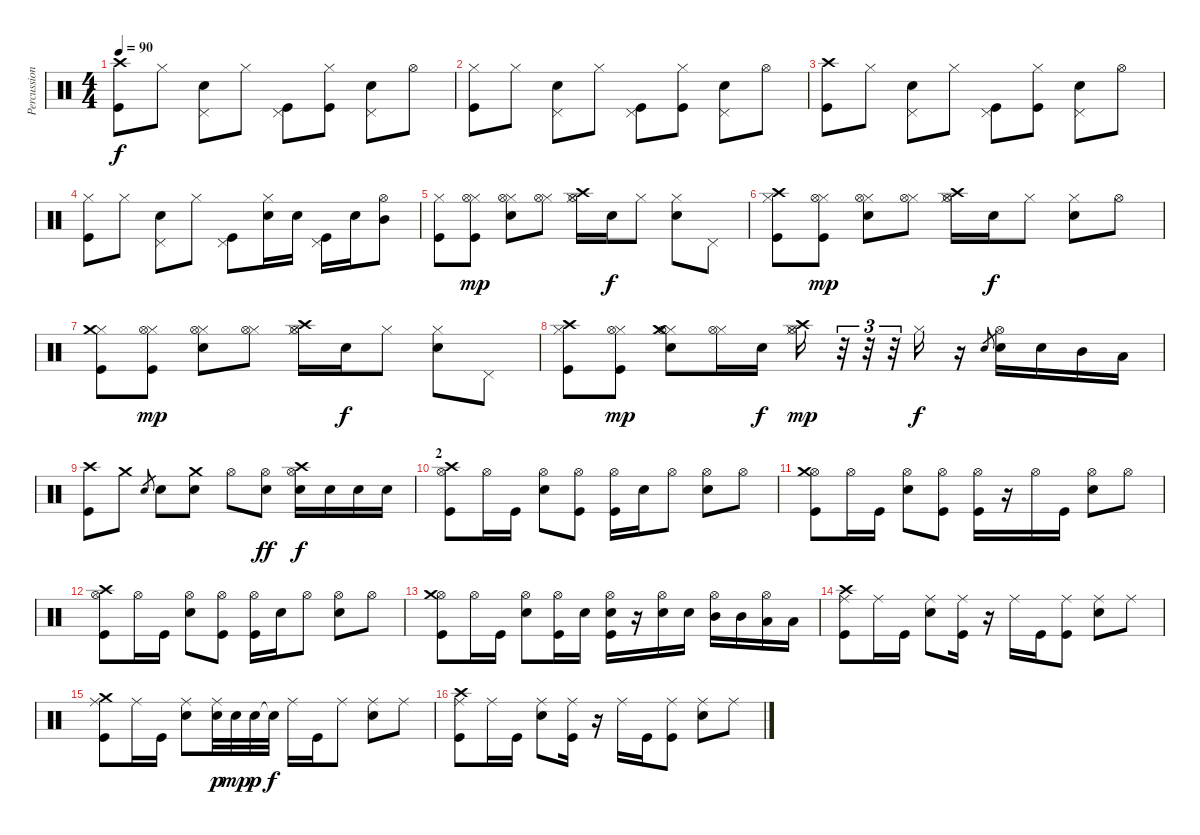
\track ("Percussions" "Percussion") {instrument percussion}
\staff {score}
\articulation defaults
\ts (4 4)
\tempo 90
\clef neutral
\ks c
("Crash high (hit)" "Kick (hit)").8{dy f} "Hi-Hat (closed)".8 ("Pedal Hi-Hat (hit)" "Snare (hit) 2").8 "Hi-Hat (closed)".8 ("Pedal Hi-Hat (hit)" "Kick (hit)").8 ("Hi-Hat (closed)" "Kick (hit)").8 ("Pedal Hi-Hat (hit)" "Snare (hit) 2").8 "Hi-Hat (open)".8 |
("Hi-Hat (closed)" "Kick (hit)").8 "Hi-Hat (closed)".8 ("Pedal Hi-Hat (hit)" "Snare (hit) 2").8 "Hi-Hat (closed)".8 ("Pedal Hi-Hat (hit)" "Kick (hit)").8 ("Hi-Hat (closed)" "Kick (hit)").8 ("Pedal Hi-Hat (hit)" "Snare (hit) 2").8 "Hi-Hat (open)".8 |
("Crash high (hit)" "Kick (hit)").8 "Hi-Hat (closed)".8 ("Pedal Hi-Hat (hit)" "Snare (hit) 2").8 "Hi-Hat (closed)".8 ("Pedal Hi-Hat (hit)" "Kick (hit)").8 ("Hi-Hat (closed)" "Kick (hit)").8 ("Pedal Hi-Hat (hit)" "Snare (hit) 2").8 "Hi-Hat (open)".8 |
("Hi-Hat (closed)" "Kick (hit)").8 "Hi-Hat (closed)".8 ("Pedal Hi-Hat (hit)" "Snare (hit) 2").8 "Hi-Hat (closed)".8{volume 16} ("Pedal Hi-Hat (hit)" "Kick (hit)").8 ("Hi-Hat (closed)" "Snare (hit) 2").16 "Snare (hit) 2".16 ("Pedal Hi-Hat (hit)" "Kick (hit)").16 "Snare (hit) 2".16 ("Mid Tom (hit)" "Hi-Hat (open)").8 |
("Hi-Hat (closed)" "Kick (hit)").8 ("Hi-Hat (closed)" "Hi-Hat (open)" "Kick (hit)").8{dy mp} ("Hi-Hat (closed)" "Hi-Hat (open)" "Snare (hit) 2").8 ("Hi-Hat (closed)" "Hi-Hat (open)").8 ("Hi-Hat (closed)" "Hi-Hat (open)" "Crash high (hit)").16 "Snare (hit) 2".16{dy f} "Hi-Hat (closed)".8 ("Hi-Hat (closed)" "Snare (hit) 2").8 "Pedal Hi-Hat (hit)".8 |
("Hi-Hat (closed)" "Crash high (hit)" "Kick (hit)").8 ("Hi-Hat (closed)" "Hi-Hat (open)" "Kick (hit)").8{dy mp} ("Hi-Hat (closed)" "Hi-Hat (open)" "Snare (hit) 2").8 ("Hi-Hat (closed)" "Hi-Hat (open)").8 ("Hi-Hat (closed)" "Hi-Hat (open)" "Crash high (hit)").16 "Snare (hit) 2".16{dy f} "Hi-Hat (closed)".8 ("Hi-Hat (closed)" "Snare (hit) 2").8 "Hi-Hat (open)".8 |
("Hi-Hat (closed)" "Crash medium (hit)" "Kick (hit)").8 ("Hi-Hat (closed)" "Hi-Hat (open)" "Kick (hit)").8{dy mp} ("Hi-Hat (closed)" "Hi-Hat (open)" "Snare (hit) 2").8 ("Hi-Hat (closed)" "Hi-Hat (open)").8 ("Hi-Hat (closed)" "Hi-Hat (open)" "Crash high (hit)").16 "Snare (hit) 2".16{dy f} "Hi-Hat (closed)".8 ("Hi-Hat (closed)" "Snare (hit) 2").8 "Pedal Hi-Hat (hit)".8 |
("Hi-Hat (closed)" "Crash high (hit)" "Kick (hit)").8 ("Hi-Hat (closed)" "Hi-Hat (open)" "Kick (hit)").8{dy mp} ("Hi-Hat (closed)" "Hi-Hat (open)" "Crash medium (hit)" "Snare (hit) 2").8 ("Hi-Hat (closed)" "Hi-Hat (open)").16 "Snare (hit) 2".16{dy f} ("Hi-Hat (closed)" "Hi-Hat (open)" "Crash high (hit)").16{dy mp} r.32{tu (3 2)} r.32{tu (3 2)} r.32{tu (3 2)} "Hi-Hat (closed)".16{dy f} r.16 "Snare (hit) 2".8{gr} ("Hi-Hat (open)" "Snare (hit) 2").16 "Snare (hit) 2".16 "Mid Tom (hit)".16 "Low Tom (hit)".16 |
("Crash high (hit)" "Kick (hit)").8 "Crash medium (hit)".8 "Snare (hit) 2".8{gr} "Snare (hit) 2".8 ("Crash medium (hit)" "Snare (hit) 2").8 "Hi-Hat (open)".8 ("Hi-Hat (open)" "Snare (hit) 2").8{dy ff} ("Crash high (hit)" "Hi-Hat (open)" "Snare (hit) 2").16{dy f} "Snare (hit) 2".16 "Snare (hit) 2".16 "Snare (hit) 2".16 |
\section ("" "2")
("Hi-Hat (open)" "Crash high (hit)" "Kick (hit)").8 "Hi-Hat (open)".16 "Kick (hit)".16 ("Hi-Hat (open)" "Snare (hit) 2").8 ("Hi-Hat (open)" "Kick (hit)").8 ("Hi-Hat (open)" "Kick (hit)").16 "Snare (hit) 2".16 "Hi-Hat (open)".8 ("Hi-Hat (open)" "Snare (hit) 2").8 "Hi-Hat (open)".8 |
("Hi-Hat (open)" "Crash medium (hit)" "Kick (hit)").8 "Hi-Hat (open)".16 "Kick (hit)".16 ("Hi-Hat (open)" "Snare (hit) 2").8 ("Hi-Hat (open)" "Kick (hit)").8 ("Hi-Hat (open)" "Kick (hit)").16 r.16 "Hi-Hat (open)".16 "Kick (hit)".16 ("Hi-Hat (open)" "Snare (hit) 2").8 "Hi-Hat (open)".8 |
("Hi-Hat (open)" "Crash high (hit)" "Kick (hit)").8 "Hi-Hat (open)".16 "Kick (hit)".16 ("Hi-Hat (open)" "Snare (hit) 2").8 ("Hi-Hat (open)" "Kick (hit)").8 ("Hi-Hat (open)" "Kick (hit)").16 "Snare (hit) 2".16 "Hi-Hat (open)".8 ("Hi-Hat (open)" "Snare (hit) 2").8 "Hi-Hat (open)".8 |
("Hi-Hat (open)" "Crash medium (hit)" "Kick (hit)").8 "Hi-Hat (open)".16 "Kick (hit)".16 ("Hi-Hat (open)" "Snare (hit) 2").8 ("Hi-Hat (open)" "Kick (hit)").16 "Snare (hit) 2".16 ("Hi-Hat (open)" "Snare (hit) 2" "Kick (hit)").16 r.16 ("Hi-Hat (open)" "Snare (hit) 2").16 "Snare (hit) 2".16 ("Hi-Hat (open)" "Mid Tom (hit)").16 "Mid Tom (hit)".16 ("Hi-Hat (open)" "Low Tom (hit)").16 "Low Tom (hit)".16 |
("Ride (middle)" "Crash high (hit)" "Kick (hit)").8 "Ride (middle)".16 "Kick (hit)".16 ("Ride (middle)" "Snare (hit) 2").8 ("Ride (middle)" "Kick (hit)").16 r.16 "Ride (middle)".16 "Kick (hit)".16 ("Ride (middle)" "Kick (hit)").8 ("Ride (middle)" "Snare (hit) 2").8 "Ride (middle)".8 |
("Ride (middle)" "Crash medium (hit)" "Kick (hit)").8 "Ride (middle)".16 "Kick (hit)".16 ("Ride (middle)" "Snare (hit) 2").8 ("Ride (middle)" "Snare (hit) 2").32{dy p} "Snare (hit) 2".32{dy mp} "Snare (hit) 2".32{dy p} "Snare (hit)"{t}.32{dy f} "Ride (middle)".16 "Kick (hit)".16 "Ride (middle)".8 ("Ride (middle)" "Snare (hit) 2").8 "Ride (middle)".8 |
("Ride (middle)" "Crash high (hit)" "Kick (hit)").8 "Ride (middle)".16 "Kick (hit)".16 ("Ride (middle)" "Snare (hit) 2").8 ("Ride (middle)" "Kick (hit)").16 r.16 "Ride (middle)".16 "Kick (hit)".16 ("Ride (middle)" "Kick (hit)").8 ("Ride (middle)" "Snare (hit) 2").8 "Ride (middle)".8
